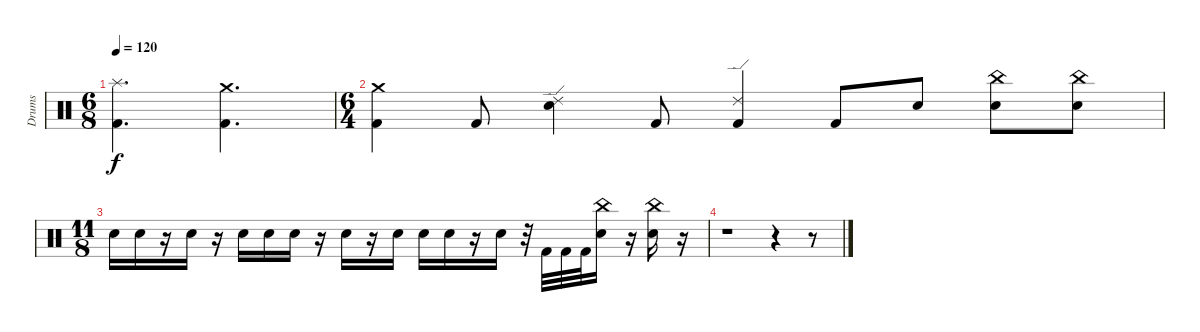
\track ("Drums" "Drums") {instrument percussion}
\staff {score}
\articulation defaults
\ts (6 8)
\tempo 120
\clef neutral
\ks c
("Splash (hit)" "Kick (hit) 2").4{d dy f} ("Crash medium (hit)" "Kick (hit) 2").4{d} |
\ts (6 4)
("Crash medium (hit)" "Kick (hit) 2").4 "Kick (hit) 2".8 ("Ride (edge) 2" "Electric Snare (hit)").4 "Kick (hit) 2".8 ("Ride (edge) 2" "Kick (hit) 2").4 "Kick (hit) 2".8 "Electric Snare (hit)".8 ("China (hit)" "Electric Snare (hit)").8 ("China (hit)" "Electric Snare (hit)").8 |
\ts (11 8)
"Electric Snare (hit)".16 "Electric Snare (hit)".16 r.16 "Electric Snare (hit)".16 r.16 "Electric Snare (hit)".16 "Electric Snare (hit)".16 "Electric Snare (hit)".16 r.16 "Electric Snare (hit)".16 r.16 "Electric Snare (hit)".16 "Electric Snare (hit)".16 "Electric Snare (hit)".16 r.16 "Electric Snare (hit)".16 r.32 "Kick (hit) 2".32 "Kick (hit) 2".32 "Kick (hit) 2".32 ("China (hit)" "Electric Snare (hit)").16 r.16 ("China (hit)" "Electric Snare (hit)").16 r.16 |
r.1 r.4 r.8
